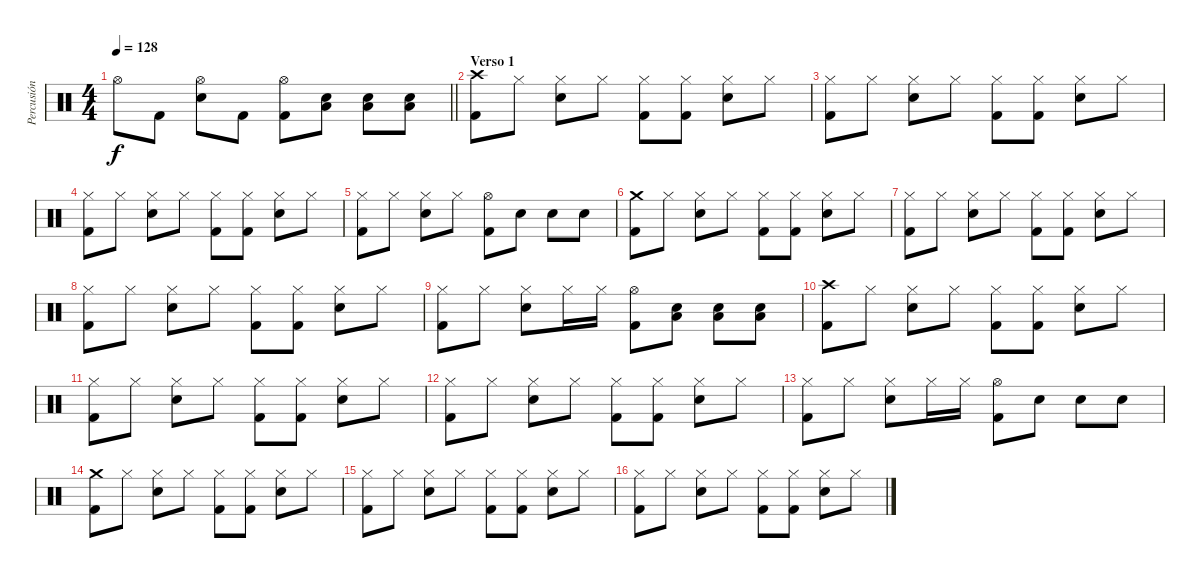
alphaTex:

\track ("Percusión" "Percusión") {instrument percussion}
\staff {score}
\articulation defaults
\ts (4 4)
\tempo 128
\clef neutral
\barLineRight lightlight
\ks c "Hi-Hat (open)".8{dy f} "Kick (hit) 2".8
("Electric Snare (hit)" "Hi-Hat (open)").8 "Kick (hit) 2".8 ("Kick (hit) 2" "Hi-Hat (open)").8 ("Low Floor Tom (hit)" "Electric Snare (hit)").8 ("Low Floor Tom (hit)" "Electric Snare (hit)").8 ("Low Floor Tom (hit)" "Electric Snare (hit)").8 |
\section ("" "Verso 1")
("Kick (hit) 2" "Crash high (hit)").8 "Hi-Hat (closed)".8 ("Electric Snare (hit)" "Hi-Hat (closed)").8 "Hi-Hat (closed)".8 ("Kick (hit) 2" "Hi-Hat (closed)").8 ("Kick (hit) 2" "Hi-Hat (closed)").8 ("Electric Snare (hit)" "Hi-Hat (closed)").8 "Hi-Hat (closed)".8 |
("Kick (hit) 2" "Hi-Hat (closed)").8 "Hi-Hat (closed)".8 ("Electric Snare (hit)" "Hi-Hat (closed)").8 "Hi-Hat (closed)".8 ("Kick (hit) 2" "Hi-Hat (closed)").8 ("Kick (hit) 2" "Hi-Hat (closed)").8 ("Electric Snare (hit)" "Hi-Hat (closed)").8 "Hi-Hat (closed)".8 |
("Kick (hit) 2" "Hi-Hat (closed)").8 "Hi-Hat (closed)".8 ("Electric Snare (hit)" "Hi-Hat (closed)").8 "Hi-Hat (closed)".8 ("Kick (hit) 2" "Hi-Hat (closed)").8 ("Kick (hit) 2" "Hi-Hat (closed)").8 ("Electric Snare (hit)" "Hi-Hat (closed)").8 "Hi-Hat (closed)".8 |
("Kick (hit) 2" "Hi-Hat (closed)").8 "Hi-Hat (closed)".8 ("Electric Snare (hit)" "Hi-Hat (closed)").8 "Hi-Hat (closed)".8 ("Kick (hit) 2" "Hi-Hat (open)").8 "Electric Snare (hit)".8 "Electric Snare (hit)".8 "Electric Snare (hit)".8 |
("Kick (hit) 2" "Crash medium (hit)").8 "Hi-Hat (closed)".8 ("Electric Snare (hit)" "Hi-Hat (closed)").8 "Hi-Hat (closed)".8 ("Kick (hit) 2" "Hi-Hat (closed)").8 ("Kick (hit) 2" "Hi-Hat (closed)").8 ("Electric Snare (hit)" "Hi-Hat (closed)").8 "Hi-Hat (closed)".8 |
("Kick (hit) 2" "Hi-Hat (closed)").8 "Hi-Hat (closed)".8 ("Electric Snare (hit)" "Hi-Hat (closed)").8 "Hi-Hat (closed)".8 ("Kick (hit) 2" "Hi-Hat (closed)").8 ("Kick (hit) 2" "Hi-Hat (closed)").8 ("Electric Snare (hit)" "Hi-Hat (closed)").8 "Hi-Hat (closed)".8 |
("Kick (hit) 2" "Hi-Hat (closed)").8 "Hi-Hat (closed)".8 ("Electric Snare (hit)" "Hi-Hat (closed)").8 "Hi-Hat (closed)".8 ("Kick (hit) 2" "Hi-Hat (closed)").8 ("Kick (hit) 2" "Hi-Hat (closed)").8 ("Electric Snare (hit)" "Hi-Hat (closed)").8 "Hi-Hat (closed)".8 |
("Kick (hit) 2" "Hi-Hat (closed)").8 "Hi-Hat (closed)".8 ("Electric Snare (hit)" "Hi-Hat (closed)").8 "Hi-Hat (closed)".16 "Hi-Hat (closed)".16 ("Kick (hit) 2" "Hi-Hat (open)").8 ("Low Floor Tom (hit)" "Electric Snare (hit)").8 ("Low Floor Tom (hit)" "Electric Snare (hit)").8 ("Low Floor Tom (hit)" "Electric Snare (hit)").8 |
("Kick (hit) 2" "Crash high (hit)").8 "Hi-Hat (closed)".8 ("Electric Snare (hit)" "Hi-Hat (closed)").8 "Hi-Hat (closed)".8 ("Kick (hit) 2" "Hi-Hat (closed)").8 ("Kick (hit) 2" "Hi-Hat (closed)").8 ("Electric Snare (hit)" "Hi-Hat (closed)").8 "Hi-Hat (closed)".8 |
("Kick (hit) 2" "Hi-Hat (closed)").8 "Hi-Hat (closed)".8 ("Electric Snare (hit)" "Hi-Hat (closed)").8 "Hi-Hat (closed)".8 ("Kick (hit) 2" "Hi-Hat (closed)").8 ("Kick (hit) 2" "Hi-Hat (closed)").8 ("Electric Snare (hit)" "Hi-Hat (closed)").8 "Hi-Hat (closed)".8 |
("Kick (hit) 2" "Hi-Hat (closed)").8 "Hi-Hat (closed)".8 ("Electric Snare (hit)" "Hi-Hat (closed)").8 "Hi-Hat (closed)".8 ("Kick (hit) 2" "Hi-Hat (closed)").8 ("Kick (hit) 2" "Hi-Hat (closed)").8 ("Electric Snare (hit)" "Hi-Hat (closed)").8 "Hi-Hat (closed)".8 |
("Kick (hit) 2" "Hi-Hat (closed)").8 "Hi-Hat (closed)".8 ("Electric Snare (hit)" "Hi-Hat (closed)").8 "Hi-Hat (closed)".16 "Hi-Hat (closed)".16 ("Kick (hit) 2" "Hi-Hat (open)").8 "Electric Snare (hit)".8 "Electric Snare (hit)".8 "Electric Snare (hit)".8 |
("Kick (hit) 2" "Crash medium (hit)").8 "Hi-Hat (closed)".8 ("Electric Snare (hit)" "Hi-Hat (closed)").8 "Hi-Hat (closed)".8 ("Kick (hit) 2" "Hi-Hat (closed)").8 ("Kick (hit) 2" "Hi-Hat (closed)").8 ("Electric Snare (hit)" "Hi-Hat (closed)").8 "Hi-Hat (closed)".8 |
("Kick (hit) 2" "Hi-Hat (closed)").8 "Hi-Hat (closed)".8 ("Electric Snare (hit)" "Hi-Hat (closed)").8 "Hi-Hat (closed)".8 ("Kick (hit) 2" "Hi-Hat (closed)").8 ("Kick (hit) 2" "Hi-Hat (closed)").8 ("Electric Snare (hit)" "Hi-Hat (closed)").8 "Hi-Hat (closed)".8 |
("Kick (hit) 2" "Hi-Hat (closed)").8 "Hi-Hat (closed)".8 ("Electric Snare (hit)" "Hi-Hat (closed)").8 "Hi-Hat (closed)".8 ("Kick (hit) 2" "Hi-Hat (closed)").8 ("Kick (hit) 2" "Hi-Hat (closed)").8 ("Electric Snare (hit)" "Hi-Hat (closed)").8 "Hi-Hat (closed)".8
